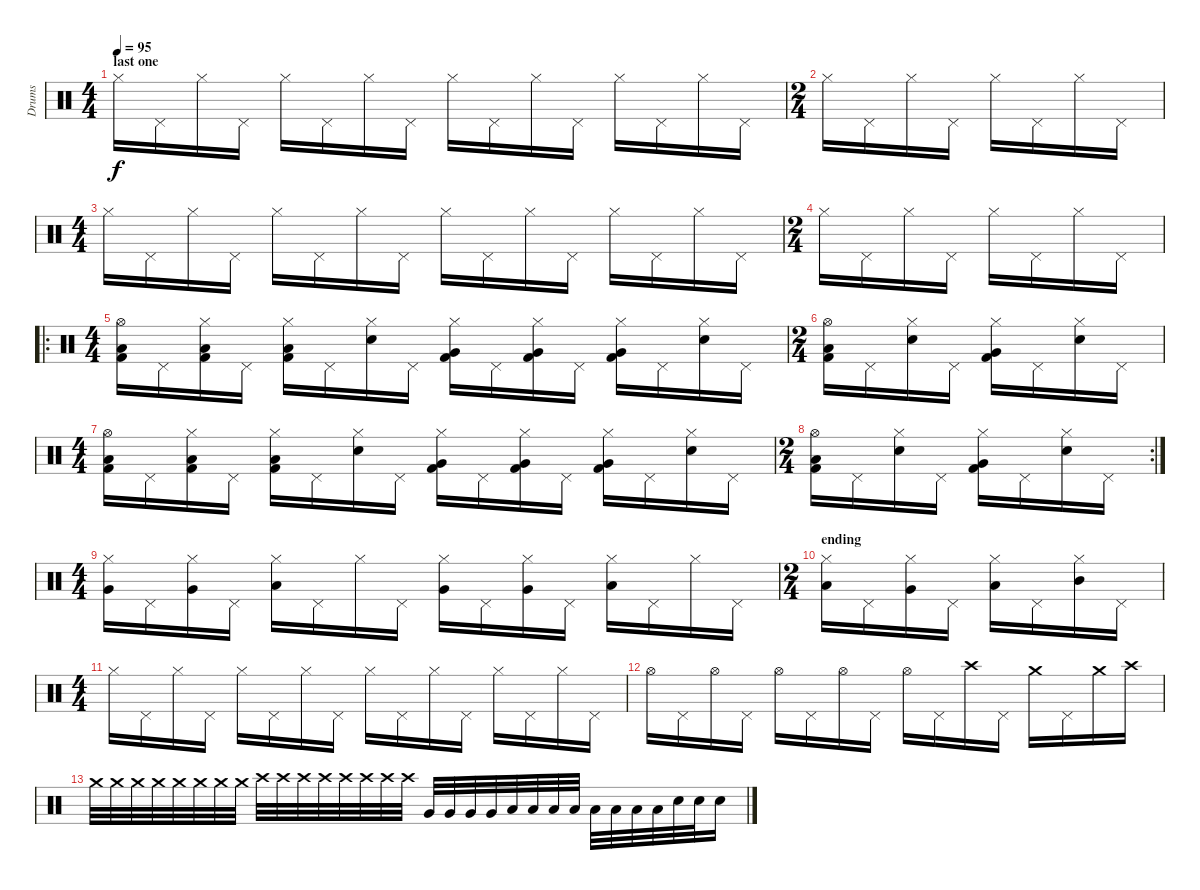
\track ("Drums" "Drums") {instrument percussion}
\staff {score}
\articulation defaults
\ts (4 4)
\section ("" "last one")
\tempo 95
\clef neutral
\ks c "Hi-Hat (closed)".16{dy f} "Pedal Hi-Hat (hit)".16 "Hi-Hat (closed)".16 "Pedal Hi-Hat (hit)".16 "Hi-Hat (closed)".16 "Pedal Hi-Hat (hit)".16 "Hi-Hat (closed)".16 "Pedal Hi-Hat (hit)".16 "Hi-Hat (closed)".16 "Pedal Hi-Hat (hit)".16 "Hi-Hat (closed)".16 "Pedal Hi-Hat (hit)".16 "Hi-Hat (closed)".16 "Pedal Hi-Hat (hit)".16 "Hi-Hat (closed)".16 "Pedal Hi-Hat (hit)".16
|
\ts (2 4)
"Hi-Hat (closed)".16 "Pedal Hi-Hat (hit)".16 "Hi-Hat (closed)".16 "Pedal Hi-Hat (hit)".16 "Hi-Hat (closed)".16 "Pedal Hi-Hat (hit)".16 "Hi-Hat (closed)".16 "Pedal Hi-Hat (hit)".16 |
\ts (4 4)
"Hi-Hat (closed)".16 "Pedal Hi-Hat (hit)".16 "Hi-Hat (closed)".16 "Pedal Hi-Hat (hit)".16 "Hi-Hat (closed)".16 "Pedal Hi-Hat (hit)".16 "Hi-Hat (closed)".16 "Pedal Hi-Hat (hit)".16 "Hi-Hat (closed)".16 "Pedal Hi-Hat (hit)".16 "Hi-Hat (closed)".16 "Pedal Hi-Hat (hit)".16 "Hi-Hat (closed)".16 "Pedal Hi-Hat (hit)".16 "Hi-Hat (closed)".16 "Pedal Hi-Hat (hit)".16 |
\ts (2 4)
"Hi-Hat (closed)".16 "Pedal Hi-Hat (hit)".16 "Hi-Hat (closed)".16 "Pedal Hi-Hat (hit)".16 "Hi-Hat (closed)".16 "Pedal Hi-Hat (hit)".16 "Hi-Hat (closed)".16 "Pedal Hi-Hat (hit)".16 |
\ro
\ts (4 4)
("Low Floor Tom (hit)" "Hi-Hat (open)" "Kick (hit) 2").16 "Pedal Hi-Hat (hit)".16 ("Low Floor Tom (hit)" "Hi-Hat (closed)" "Kick (hit) 2").16 "Pedal Hi-Hat (hit)".16 ("Low Floor Tom (hit)" "Hi-Hat (closed)" "Kick (hit) 2").16 "Pedal Hi-Hat (hit)".16 ("Hi-Hat (closed)" "Electric Snare (hit)").16 "Pedal Hi-Hat (hit)".16 ("Very Low Tom (hit)" "Hi-Hat (closed)" "Kick (hit) 2").16 "Pedal Hi-Hat (hit)".16 ("Very Low Tom (hit)" "Hi-Hat (closed)" "Kick (hit) 2").16 "Pedal Hi-Hat (hit)".16 ("Very Low Tom (hit)" "Hi-Hat (closed)" "Kick (hit) 2").16 "Pedal Hi-Hat (hit)".16 ("Hi-Hat (closed)" "Electric Snare (hit)").16 "Pedal Hi-Hat (hit)".16 |
\ts (2 4)
("Low Floor Tom (hit)" "Hi-Hat (open)" "Kick (hit) 2").16 "Pedal Hi-Hat (hit)".16 ("Hi-Hat (closed)" "Electric Snare (hit)").16 "Pedal Hi-Hat (hit)".16 ("Very Low Tom (hit)" "Hi-Hat (closed)" "Kick (hit) 2").16 "Pedal Hi-Hat (hit)".16 ("Hi-Hat (closed)" "Electric Snare (hit)").16 "Pedal Hi-Hat (hit)".16 |
\ts (4 4)
("Low Floor Tom (hit)" "Hi-Hat (open)" "Kick (hit) 2").16 "Pedal Hi-Hat (hit)".16 ("Low Floor Tom (hit)" "Hi-Hat (closed)" "Kick (hit) 2").16 "Pedal Hi-Hat (hit)".16 ("Low Floor Tom (hit)" "Hi-Hat (closed)" "Kick (hit) 2").16 "Pedal Hi-Hat (hit)".16 ("Hi-Hat (closed)" "Electric Snare (hit)").16 "Pedal Hi-Hat (hit)".16 ("Very Low Tom (hit)" "Hi-Hat (closed)" "Kick (hit) 2").16 "Pedal Hi-Hat (hit)".16 ("Very Low Tom (hit)" "Hi-Hat (closed)" "Kick (hit) 2").16 "Pedal Hi-Hat (hit)".16 ("Very Low Tom (hit)" "Hi-Hat (closed)" "Kick (hit) 2").16 "Pedal Hi-Hat (hit)".16 ("Hi-Hat (closed)" "Electric Snare (hit)").16 "Pedal Hi-Hat (hit)".16 |
\rc 2
\ts (2 4)
("Low Floor Tom (hit)" "Hi-Hat (open)" "Kick (hit) 2").16 "Pedal Hi-Hat (hit)".16 ("Hi-Hat (closed)" "Electric Snare (hit)").16 "Pedal Hi-Hat (hit)".16 ("Very Low Tom (hit)" "Hi-Hat (closed)" "Kick (hit) 2").16 "Pedal Hi-Hat (hit)".16 ("Hi-Hat (closed)" "Electric Snare (hit)").16 "Pedal Hi-Hat (hit)".16 |
\ts (4 4)
("Very Low Tom (hit)" "Hi-Hat (closed)").16 "Pedal Hi-Hat (hit)".16 ("Very Low Tom (hit)" "Hi-Hat (closed)").16 "Pedal Hi-Hat (hit)".16 ("Low Floor Tom (hit)" "Hi-Hat (closed)").16 "Pedal Hi-Hat (hit)".16 "Hi-Hat (closed)".16 "Pedal Hi-Hat (hit)".16 ("Very Low Tom (hit)" "Hi-Hat (closed)").16 "Pedal Hi-Hat (hit)".16 ("Very Low Tom (hit)" "Hi-Hat (closed)").16 "Pedal Hi-Hat (hit)".16 ("Low Tom (hit)" "Hi-Hat (closed)").16 "Pedal Hi-Hat (hit)".16 "Hi-Hat (closed)".16 "Pedal Hi-Hat (hit)".16 |
\ts (2 4)
\section ("" "ending")
("Low Floor Tom (hit)" "Hi-Hat (closed)").16 "Pedal Hi-Hat (hit)".16 ("Very Low Tom (hit)" "Hi-Hat (closed)").16 "Pedal Hi-Hat (hit)".16 ("Low Tom (hit)" "Hi-Hat (closed)").16 "Pedal Hi-Hat (hit)".16 ("Mid Tom (hit)" "Hi-Hat (closed)").16 "Pedal Hi-Hat (hit)".16 |
\ts (4 4)
"Hi-Hat (closed)".16 "Pedal Hi-Hat (hit)".16 "Hi-Hat (closed)".16 "Pedal Hi-Hat (hit)".16 "Hi-Hat (closed)".16 "Pedal Hi-Hat (hit)".16 "Hi-Hat (closed)".16 "Pedal Hi-Hat (hit)".16 "Hi-Hat (closed)".16 "Pedal Hi-Hat (hit)".16 "Hi-Hat (closed)".16 "Pedal Hi-Hat (hit)".16 "Hi-Hat (closed)".16 "Pedal Hi-Hat (hit)".16 "Hi-Hat (closed)".16 "Pedal Hi-Hat (hit)".16 |
"Hi-Hat (open)".16 "Pedal Hi-Hat (hit)".16 "Hi-Hat (open)".16 "Pedal Hi-Hat (hit)".16 "Hi-Hat (open)".16 "Pedal Hi-Hat (hit)".16 "Hi-Hat (open)".16 "Pedal Hi-Hat (hit)".16 "Hi-Hat (open)".16 "Pedal Hi-Hat (hit)".16 "Crash high (hit)".16 "Pedal Hi-Hat (hit)".16 "Crash medium (hit)".16 "Pedal Hi-Hat (hit)".16 "Crash medium (hit)".16 "Crash high (hit)".16 |
"Crash medium (hit)".32 "Crash medium (hit)".32 "Crash medium (hit)".32 "Crash medium (hit)".32 "Crash medium (hit)".32 "Crash medium (hit)".32 "Crash medium (hit)".32 "Crash medium (hit)".32 "Crash high (hit)".32 "Crash high (hit)".32 "Crash high (hit)".32 "Crash high (hit)".32 "Crash high (hit)".32 "Crash high (hit)".32 "Crash high (hit)".32 "Crash high (hit)".32 "Very Low Tom (hit)".32 "Very Low Tom (hit)".32 "Very Low Tom (hit)".32 "Very Low Tom (hit)".32 "Low Floor Tom (hit)".32 "Low Floor Tom (hit)".32 "Low Floor Tom (hit)".32 "Low Floor Tom (hit)".32 "Low Tom (hit)".32 "Low Tom (hit)".32 "Low Tom (hit)".32 "Low Tom (hit)".32 "Electric Snare (hit)".32 "Electric Snare (hit)".32 "Electric Snare (hit)".16
